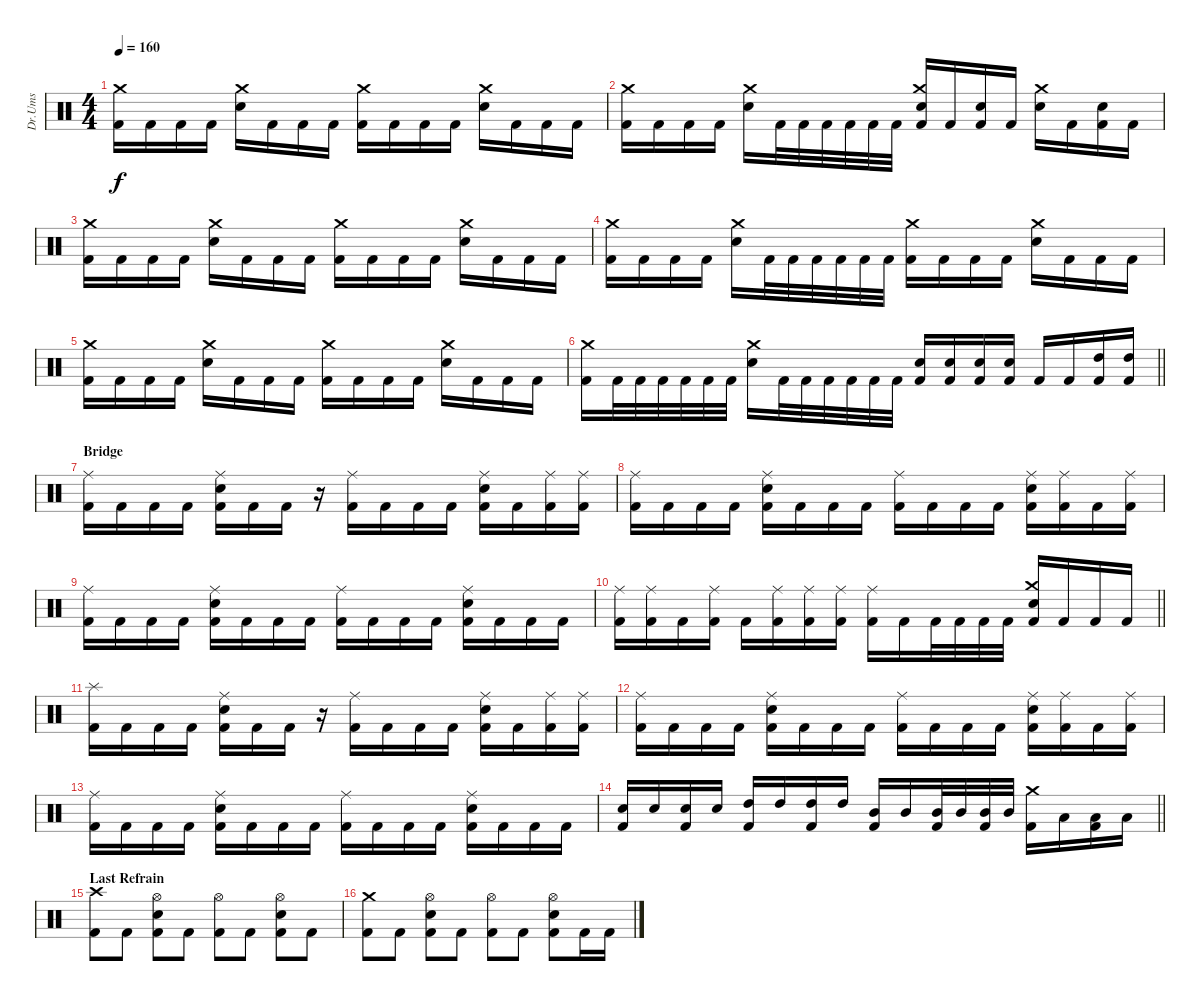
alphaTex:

\track ("Dr.Ums" "Dr.Ums") {instrument percussion}
\staff {score}
\articulation defaults
\ts (4 4)
\tempo 160
\clef neutral
\ks c
("Kick (hit) 2" "Crash medium (hit)").16{dy f} "Kick (hit) 2".16 "Kick (hit) 2".16 "Kick (hit) 2".16 ("Snare (hit) 2" "Crash medium (hit)").16 "Kick (hit) 2".16 "Kick (hit) 2".16 "Kick (hit) 2".16 ("Kick (hit) 2" "Crash medium (hit)").16 "Kick (hit) 2".16 "Kick (hit) 2".16 "Kick (hit) 2".16 ("Snare (hit) 2" "Crash medium (hit)").16 "Kick (hit) 2".16 "Kick (hit) 2".16 "Kick (hit) 2".16 |
("Kick (hit) 2" "Crash medium (hit)").16 "Kick (hit) 2".16 "Kick (hit) 2".16 "Kick (hit) 2".16 ("Snare (hit) 2" "Crash medium (hit)").16 "Kick (hit) 2".32 "Kick (hit) 2".32 "Kick (hit) 2".32 "Kick (hit) 2".32 "Kick (hit) 2".32 "Kick (hit) 2".32 ("Kick (hit) 2" "Crash medium (hit)" "Snare (hit) 2").16 "Kick (hit) 2".16 ("Kick (hit) 2" "Snare (hit) 2").16 "Kick (hit) 2".16 ("Snare (hit) 2" "Crash medium (hit)").16 "Kick (hit) 2".16 ("Kick (hit) 2" "Snare (hit) 2").16 "Kick (hit) 2".16 |
("Kick (hit) 2" "Crash medium (hit)").16 "Kick (hit) 2".16 "Kick (hit) 2".16 "Kick (hit) 2".16 ("Snare (hit) 2" "Crash medium (hit)").16 "Kick (hit) 2".16 "Kick (hit) 2".16 "Kick (hit) 2".16 ("Kick (hit) 2" "Crash medium (hit)").16 "Kick (hit) 2".16 "Kick (hit) 2".16 "Kick (hit) 2".16 ("Snare (hit) 2" "Crash medium (hit)").16 "Kick (hit) 2".16 "Kick (hit) 2".16 "Kick (hit) 2".16 |
("Kick (hit) 2" "Crash medium (hit)").16 "Kick (hit) 2".16 "Kick (hit) 2".16 "Kick (hit) 2".16 ("Snare (hit) 2" "Crash medium (hit)").16 "Kick (hit) 2".32 "Kick (hit) 2".32 "Kick (hit) 2".32 "Kick (hit) 2".32 "Kick (hit) 2".32 "Kick (hit) 2".32 ("Kick (hit) 2" "Crash medium (hit)").16 "Kick (hit) 2".16 "Kick (hit) 2".16 "Kick (hit) 2".16 ("Snare (hit) 2" "Crash medium (hit)").16 "Kick (hit) 2".16 "Kick (hit) 2".16 "Kick (hit) 2".16 |
("Kick (hit) 2" "Crash medium (hit)").16 "Kick (hit) 2".16 "Kick (hit) 2".16 "Kick (hit) 2".16 ("Snare (hit) 2" "Crash medium (hit)").16 "Kick (hit) 2".16 "Kick (hit) 2".16 "Kick (hit) 2".16 ("Kick (hit) 2" "Crash medium (hit)").16 "Kick (hit) 2".16 "Kick (hit) 2".16 "Kick (hit) 2".16 ("Snare (hit) 2" "Crash medium (hit)").16 "Kick (hit) 2".16 "Kick (hit) 2".16 "Kick (hit) 2".16 |
\barLineRight lightlight
("Kick (hit) 2" "Crash medium (hit)").16 "Kick (hit) 2".32 "Kick (hit) 2".32 "Kick (hit) 2".32 "Kick (hit) 2".32 "Kick (hit) 2".32 "Kick (hit) 2".32 ("Snare (hit) 2" "Crash medium (hit)").16 "Kick (hit) 2".32 "Kick (hit) 2".32 "Kick (hit) 2".32 "Kick (hit) 2".32 "Kick (hit) 2".32 "Kick (hit) 2".32 ("Snare (hit) 2" "Kick (hit) 2").16 ("Snare (hit) 2" "Kick (hit) 2").16 ("Snare (hit) 2" "Kick (hit) 2").16 ("Snare (hit) 2" "Kick (hit) 2").16 "Kick (hit) 2".16 "Kick (hit) 2".16 ("High Tom (hit)" "Kick (hit) 2").16 ("High Tom (hit)" "Kick (hit) 2").16 |
\section ("" "Bridge")
("Kick (hit) 2" "Ride (middle)").16 "Kick (hit) 2".16 "Kick (hit) 2".16 "Kick (hit) 2".16 ("Kick (hit) 2" "Ride (middle)" "Snare (hit) 2").16 "Kick (hit) 2".16 "Kick (hit) 2".16 r.16 ("Kick (hit) 2" "Ride (middle)").16 "Kick (hit) 2".16 "Kick (hit) 2".16 "Kick (hit) 2".16 ("Kick (hit) 2" "Ride (middle)" "Snare (hit) 2").16 "Kick (hit) 2".16 ("Kick (hit) 2" "Ride (middle)").16 ("Kick (hit) 2" "Ride (middle)").16 |
("Kick (hit) 2" "Ride (middle)").16 "Kick (hit) 2".16 "Kick (hit) 2".16 "Kick (hit) 2".16 ("Kick (hit) 2" "Ride (middle)" "Snare (hit) 2").16 "Kick (hit) 2".16 "Kick (hit) 2".16 "Kick (hit) 2".16 ("Kick (hit) 2" "Ride (middle)").16 "Kick (hit) 2".16 "Kick (hit) 2".16 "Kick (hit) 2".16 ("Kick (hit) 2" "Ride (middle)" "Snare (hit) 2").16 ("Kick (hit) 2" "Ride (middle)").16 "Kick (hit) 2".16 ("Kick (hit) 2" "Ride (middle)").16 |
("Kick (hit) 2" "Ride (middle)").16 "Kick (hit) 2".16 "Kick (hit) 2".16 "Kick (hit) 2".16 ("Kick (hit) 2" "Ride (middle)" "Snare (hit) 2").16 "Kick (hit) 2".16 "Kick (hit) 2".16 "Kick (hit) 2".16 ("Kick (hit) 2" "Ride (middle)").16 "Kick (hit) 2".16 "Kick (hit) 2".16 "Kick (hit) 2".16 ("Kick (hit) 2" "Ride (middle)" "Snare (hit) 2").16 "Kick (hit) 2".16 "Kick (hit) 2".16 "Kick (hit) 2".16 |
\barLineRight lightlight
("Kick (hit) 2" "Ride (middle)").16 ("Kick (hit) 2" "Ride (middle)").16 "Kick (hit) 2".16 ("Kick (hit) 2" "Ride (middle)").16 "Kick (hit) 2".16 ("Kick (hit) 2" "Ride (middle)").16 ("Kick (hit) 2" "Ride (middle)").16 ("Kick (hit) 2" "Ride (middle)").16 ("Kick (hit) 2" "Ride (middle)").16 "Kick (hit) 2".16 "Kick (hit) 2".32 "Kick (hit) 2".32 "Kick (hit) 2".32 "Kick (hit) 2".32 ("Kick (hit) 2" "Crash medium (hit)" "Snare (hit) 2").16 "Kick (hit) 2".16 "Kick (hit) 2".16 "Kick (hit) 2".16 |
("Kick (hit) 2" "Splash (hit)").16 "Kick (hit) 2".16 "Kick (hit) 2".16 "Kick (hit) 2".16 ("Kick (hit) 2" "Ride (middle)" "Snare (hit) 2").16 "Kick (hit) 2".16 "Kick (hit) 2".16 r.16 ("Kick (hit) 2" "Ride (middle)").16 "Kick (hit) 2".16 "Kick (hit) 2".16 "Kick (hit) 2".16 ("Kick (hit) 2" "Ride (middle)" "Snare (hit) 2").16 "Kick (hit) 2".16 ("Kick (hit) 2" "Ride (middle)").16 ("Kick (hit) 2" "Ride (middle)").16 |
("Kick (hit) 2" "Ride (middle)").16 "Kick (hit) 2".16 "Kick (hit) 2".16 "Kick (hit) 2".16 ("Kick (hit) 2" "Ride (middle)" "Snare (hit) 2").16 "Kick (hit) 2".16 "Kick (hit) 2".16 "Kick (hit) 2".16 ("Kick (hit) 2" "Ride (middle)").16 "Kick (hit) 2".16 "Kick (hit) 2".16 "Kick (hit) 2".16 ("Kick (hit) 2" "Ride (middle)" "Snare (hit) 2").16 ("Kick (hit) 2" "Ride (middle)").16 "Kick (hit) 2".16 ("Kick (hit) 2" "Ride (middle)").16 |
("Kick (hit) 2" "Ride (middle)").16 "Kick (hit) 2".16 "Kick (hit) 2".16 "Kick (hit) 2".16 ("Kick (hit) 2" "Ride (middle)" "Snare (hit) 2").16 "Kick (hit) 2".16 "Kick (hit) 2".16 "Kick (hit) 2".16 ("Kick (hit) 2" "Ride (middle)").16 "Kick (hit) 2".16 "Kick (hit) 2".16 "Kick (hit) 2".16 ("Kick (hit) 2" "Ride (middle)" "Snare (hit) 2").16 "Kick (hit) 2".16 "Kick (hit) 2".16 "Kick (hit) 2".16 |
\barLineRight lightlight
("Snare (hit) 2" "Kick (hit) 2").16 "Snare (hit) 2".16 ("Snare (hit) 2" "Kick (hit) 2").16 "Snare (hit) 2".16 ("High Tom (hit)" "Kick (hit) 2").16 "High Tom (hit)".16 ("High Tom (hit)" "Kick (hit) 2").16 "High Tom (hit)".16 ("Mid Tom (hit)" "Kick (hit) 2").16 "Mid Tom (hit)".16 ("Mid Tom (hit)" "Kick (hit) 2").32 "Mid Tom (hit)".32 ("Mid Tom (hit)" "Kick (hit) 2").32 "Mid Tom (hit)".32 ("Crash medium (hit)" "Kick (hit) 2").16 "Low Tom (hit)".16 ("Low Tom (hit)" "Kick (hit) 2").16 "Low Tom (hit)".16 |
\section ("" "Last Refrain")
("Crash high (hit)" "Kick (hit) 2").8 "Kick (hit) 2".8 ("Snare (hit) 2" "Kick (hit) 2" "Hi-Hat (open)").8 "Kick (hit) 2".8 ("Kick (hit) 2" "Hi-Hat (open)").8 "Kick (hit) 2".8 ("Kick (hit) 2" "Snare (hit) 2" "Hi-Hat (open)").8 "Kick (hit) 2".8 |
("Crash medium (hit)" "Kick (hit) 2").8 "Kick (hit) 2".8 ("Snare (hit) 2" "Kick (hit) 2" "Hi-Hat (open)").8 "Kick (hit) 2".8 ("Kick (hit) 2" "Hi-Hat (open)").8 "Kick (hit) 2".8 ("Kick (hit) 2" "Snare (hit) 2" "Hi-Hat (open)").8 "Kick (hit) 2".16 "Kick (hit) 2".16
